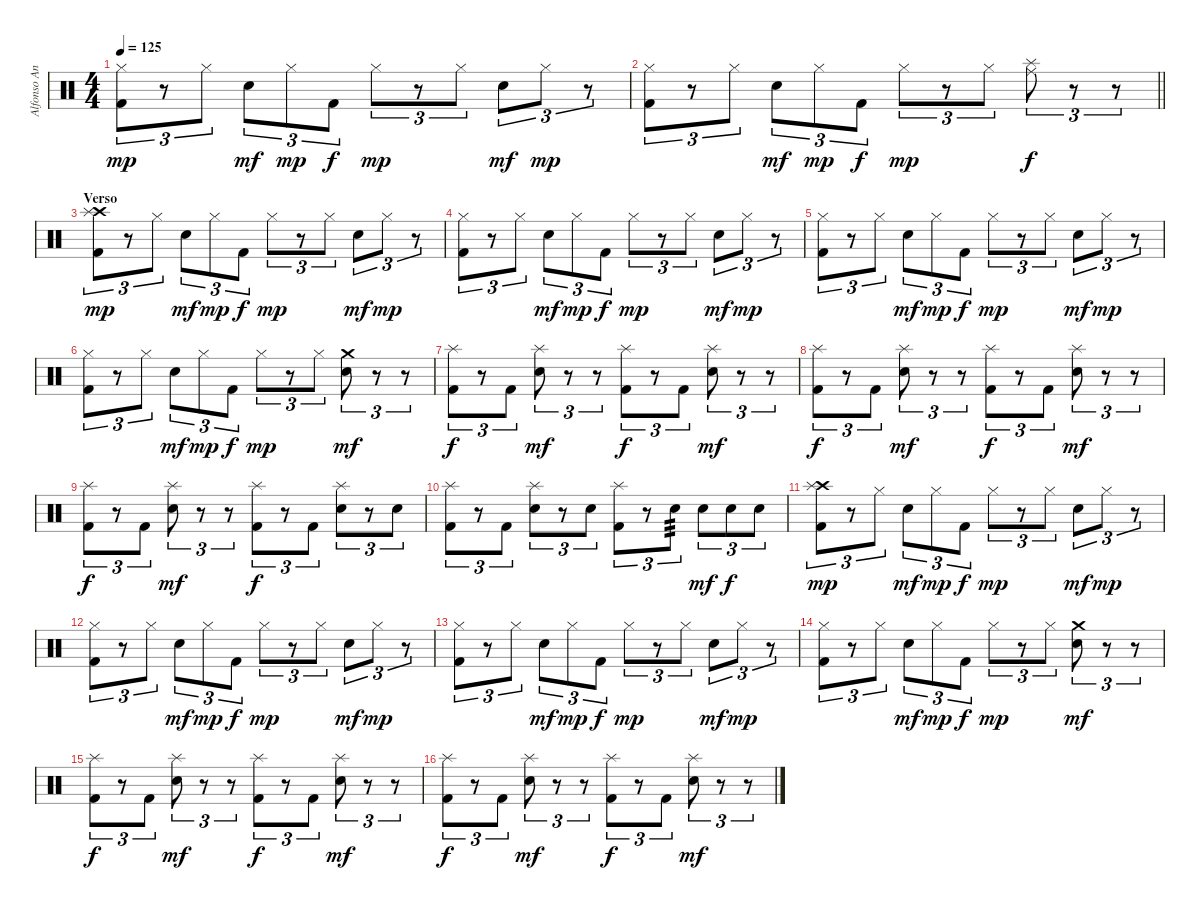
\track ("Alfonso Andre" "Alfonso An") {instrument percussion}
\staff {score}
\articulation defaults
\ts (4 4)
\tempo 125
\clef neutral
\ks c
("Hi-Hat (closed)" "Kick (hit) 2").8{tu (3 2) dy mp} r.8{tu (3 2)} "Hi-Hat (closed)".8{tu (3 2)} "Electric Snare (hit)".8{tu (3 2) dy mf} "Hi-Hat (closed)".8{tu (3 2) dy mp} "Kick (hit) 2".8{tu (3 2) dy f} "Hi-Hat (closed)".8{tu (3 2) dy mp} r.8{tu (3 2)} "Hi-Hat (closed)".8{tu (3 2)} "Electric Snare (hit)".8{tu (3 2) dy mf} "Hi-Hat (closed)".8{tu (3 2) dy mp} r.8{tu (3 2)} |
\barLineRight lightlight
("Hi-Hat (closed)" "Kick (hit) 2").8{tu (3 2)} r.8{tu (3 2)} "Hi-Hat (closed)".8{tu (3 2)} "Electric Snare (hit)".8{tu (3 2) dy mf} "Hi-Hat (closed)".8{tu (3 2) dy mp} "Kick (hit) 2".8{tu (3 2) dy f} "Hi-Hat (closed)".8{tu (3 2) dy mp} r.8{tu (3 2)} "Hi-Hat (closed)".8{tu (3 2)} ("Splash (hit)" "Ride (middle)").8{tu (3 2) dy f} r.8{tu (3 2)} r.8{tu (3 2)} |
\section ("" "Verso")
("Crash high (hit)" "Splash (hit)" "Kick (hit) 2").8{tu (3 2) dy mp} r.8{tu (3 2)} "Hi-Hat (closed)".8{tu (3 2)} "Electric Snare (hit)".8{tu (3 2) dy mf} "Hi-Hat (closed)".8{tu (3 2) dy mp} "Kick (hit) 2".8{tu (3 2) dy f} "Hi-Hat (closed)".8{tu (3 2) dy mp} r.8{tu (3 2)} "Hi-Hat (closed)".8{tu (3 2)} "Electric Snare (hit)".8{tu (3 2) dy mf} "Hi-Hat (closed)".8{tu (3 2) dy mp} r.8{tu (3 2)} |
("Hi-Hat (closed)" "Kick (hit) 2").8{tu (3 2)} r.8{tu (3 2)} "Hi-Hat (closed)".8{tu (3 2)} "Electric Snare (hit)".8{tu (3 2) dy mf} "Hi-Hat (closed)".8{tu (3 2) dy mp} "Kick (hit) 2".8{tu (3 2) dy f} "Hi-Hat (closed)".8{tu (3 2) dy mp} r.8{tu (3 2)} "Hi-Hat (closed)".8{tu (3 2)} "Electric Snare (hit)".8{tu (3 2) dy mf} "Hi-Hat (closed)".8{tu (3 2) dy mp} r.8{tu (3 2)} |
("Hi-Hat (closed)" "Kick (hit) 2").8{tu (3 2)} r.8{tu (3 2)} "Hi-Hat (closed)".8{tu (3 2)} "Electric Snare (hit)".8{tu (3 2) dy mf} "Hi-Hat (closed)".8{tu (3 2) dy mp} "Kick (hit) 2".8{tu (3 2) dy f} "Hi-Hat (closed)".8{tu (3 2) dy mp} r.8{tu (3 2)} "Hi-Hat (closed)".8{tu (3 2)} "Electric Snare (hit)".8{tu (3 2) dy mf} "Hi-Hat (closed)".8{tu (3 2) dy mp} r.8{tu (3 2)} |
("Hi-Hat (closed)" "Kick (hit) 2").8{tu (3 2)} r.8{tu (3 2)} "Hi-Hat (closed)".8{tu (3 2)} "Electric Snare (hit)".8{tu (3 2) dy mf} "Hi-Hat (closed)".8{tu (3 2) dy mp} "Kick (hit) 2".8{tu (3 2) dy f} "Hi-Hat (closed)".8{tu (3 2) dy mp} r.8{tu (3 2)} "Hi-Hat (closed)".8{tu (3 2)} ("Crash medium (hit)" "Electric Snare (hit)").8{tu (3 2) dy mf} r.8{tu (3 2)} r.8{tu (3 2)} |
("Splash (hit)" "Kick (hit) 2").8{tu (3 2) dy f} r.8{tu (3 2)} "Kick (hit) 2".8{tu (3 2)} ("Splash (hit)" "Electric Snare (hit)").8{tu (3 2) dy mf} r.8{tu (3 2)} r.8{tu (3 2)} ("Splash (hit)" "Kick (hit) 2").8{tu (3 2) dy f} r.8{tu (3 2)} "Kick (hit) 2".8{tu (3 2)} ("Splash (hit)" "Electric Snare (hit)").8{tu (3 2) dy mf} r.8{tu (3 2)} r.8{tu (3 2)} |
("Splash (hit)" "Kick (hit) 2").8{tu (3 2) dy f} r.8{tu (3 2)} "Kick (hit) 2".8{tu (3 2)} ("Splash (hit)" "Electric Snare (hit)").8{tu (3 2) dy mf} r.8{tu (3 2)} r.8{tu (3 2)} ("Splash (hit)" "Kick (hit) 2").8{tu (3 2) dy f} r.8{tu (3 2)} "Kick (hit) 2".8{tu (3 2)} ("Splash (hit)" "Electric Snare (hit)").8{tu (3 2) dy mf} r.8{tu (3 2)} r.8{tu (3 2)} |
("Splash (hit)" "Kick (hit) 2").8{tu (3 2) dy f} r.8{tu (3 2)} "Kick (hit) 2".8{tu (3 2)} ("Splash (hit)" "Electric Snare (hit)").8{tu (3 2) dy mf} r.8{tu (3 2)} r.8{tu (3 2)} ("Splash (hit)" "Kick (hit) 2").8{tu (3 2) dy f} r.8{tu (3 2)} "Kick (hit) 2".8{tu (3 2)} ("Splash (hit)" "Electric Snare (hit)").8{tu (3 2)} r.8{tu (3 2)} "Electric Snare (hit)".8{tu (3 2)} |
("Splash (hit)" "Kick (hit) 2").8{tu (3 2)} r.8{tu (3 2)} "Kick (hit) 2".8{tu (3 2)} ("Splash (hit)" "Electric Snare (hit)").8{tu (3 2)} r.8{tu (3 2)} "Electric Snare (hit)".8{tu (3 2)} ("Splash (hit)" "Kick (hit) 2").8{tu (3 2)} r.8{tu (3 2)} "Electric Snare (hit)".8{tu (3 2) tp 3} "Electric Snare (hit)".8{tu (3 2) dy mf} "Electric Snare (hit)".8{tu (3 2) dy f} "Electric Snare (hit)".8{tu (3 2)} |
("Crash high (hit)" "Splash (hit)" "Kick (hit) 2").8{tu (3 2) dy mp} r.8{tu (3 2)} "Hi-Hat (closed)".8{tu (3 2)} "Electric Snare (hit)".8{tu (3 2) dy mf} "Hi-Hat (closed)".8{tu (3 2) dy mp} "Kick (hit) 2".8{tu (3 2) dy f} "Hi-Hat (closed)".8{tu (3 2) dy mp} r.8{tu (3 2)} "Hi-Hat (closed)".8{tu (3 2)} "Electric Snare (hit)".8{tu (3 2) dy mf} "Hi-Hat (closed)".8{tu (3 2) dy mp} r.8{tu (3 2)} |
("Hi-Hat (closed)" "Kick (hit) 2").8{tu (3 2)} r.8{tu (3 2)} "Hi-Hat (closed)".8{tu (3 2)} "Electric Snare (hit)".8{tu (3 2) dy mf} "Hi-Hat (closed)".8{tu (3 2) dy mp} "Kick (hit) 2".8{tu (3 2) dy f} "Hi-Hat (closed)".8{tu (3 2) dy mp} r.8{tu (3 2)} "Hi-Hat (closed)".8{tu (3 2)} "Electric Snare (hit)".8{tu (3 2) dy mf} "Hi-Hat (closed)".8{tu (3 2) dy mp} r.8{tu (3 2)} |
("Hi-Hat (closed)" "Kick (hit) 2").8{tu (3 2)} r.8{tu (3 2)} "Hi-Hat (closed)".8{tu (3 2)} "Electric Snare (hit)".8{tu (3 2) dy mf} "Hi-Hat (closed)".8{tu (3 2) dy mp} "Kick (hit) 2".8{tu (3 2) dy f} "Hi-Hat (closed)".8{tu (3 2) dy mp} r.8{tu (3 2)} "Hi-Hat (closed)".8{tu (3 2)} "Electric Snare (hit)".8{tu (3 2) dy mf} "Hi-Hat (closed)".8{tu (3 2) dy mp} r.8{tu (3 2)} |
("Hi-Hat (closed)" "Kick (hit) 2").8{tu (3 2)} r.8{tu (3 2)} "Hi-Hat (closed)".8{tu (3 2)} "Electric Snare (hit)".8{tu (3 2) dy mf} "Hi-Hat (closed)".8{tu (3 2) dy mp} "Kick (hit) 2".8{tu (3 2) dy f} "Hi-Hat (closed)".8{tu (3 2) dy mp} r.8{tu (3 2)} "Hi-Hat (closed)".8{tu (3 2)} ("Crash medium (hit)" "Electric Snare (hit)").8{tu (3 2) dy mf} r.8{tu (3 2)} r.8{tu (3 2)} |
("Splash (hit)" "Kick (hit) 2").8{tu (3 2) dy f} r.8{tu (3 2)} "Kick (hit) 2".8{tu (3 2)} ("Splash (hit)" "Electric Snare (hit)").8{tu (3 2) dy mf} r.8{tu (3 2)} r.8{tu (3 2)} ("Splash (hit)" "Kick (hit) 2").8{tu (3 2) dy f} r.8{tu (3 2)} "Kick (hit) 2".8{tu (3 2)} ("Splash (hit)" "Electric Snare (hit)").8{tu (3 2) dy mf} r.8{tu (3 2)} r.8{tu (3 2)} |
("Splash (hit)" "Kick (hit) 2").8{tu (3 2) dy f} r.8{tu (3 2)} "Kick (hit) 2".8{tu (3 2)} ("Splash (hit)" "Electric Snare (hit)").8{tu (3 2) dy mf} r.8{tu (3 2)} r.8{tu (3 2)} ("Splash (hit)" "Kick (hit) 2").8{tu (3 2) dy f} r.8{tu (3 2)} "Kick (hit) 2".8{tu (3 2)} ("Splash (hit)" "Electric Snare (hit)").8{tu (3 2) dy mf} r.8{tu (3 2)} r.8{tu (3 2)}
